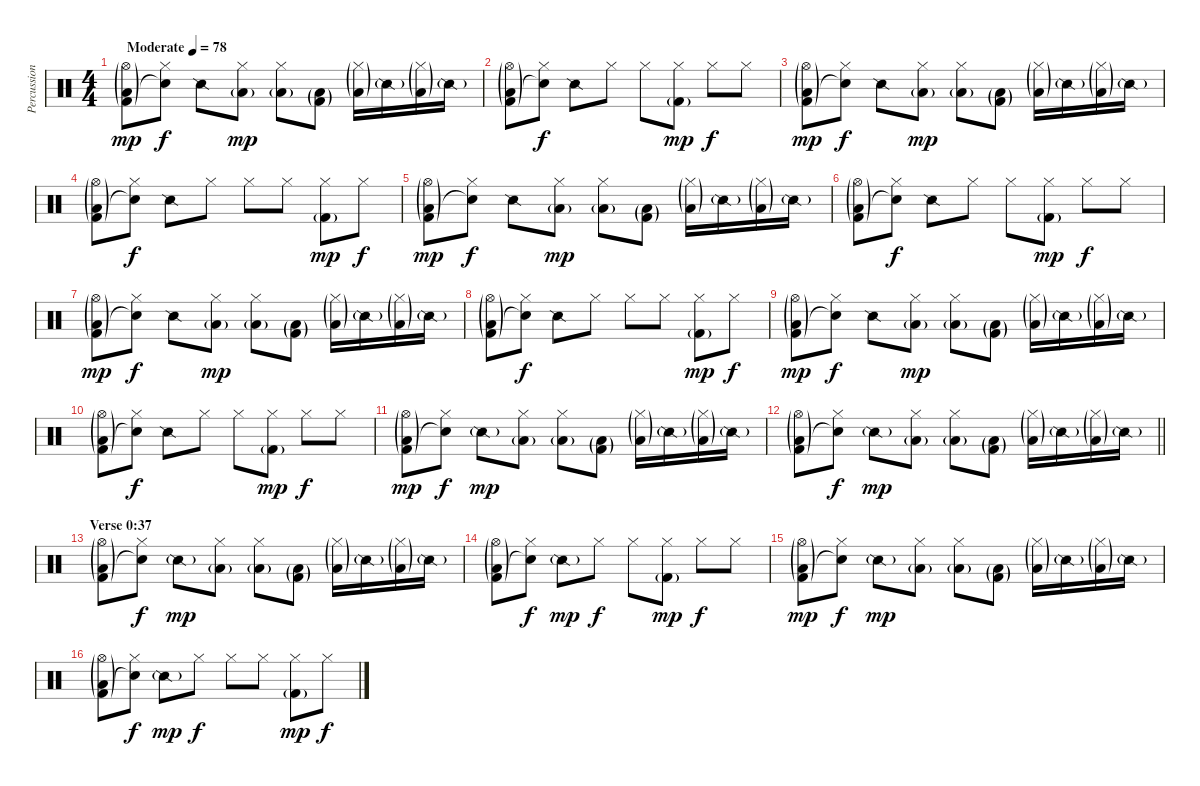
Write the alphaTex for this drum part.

\track ("Percussion" "Percussion") {instrument percussion}
\staff {score}
\articulation defaults
\ts (4 4)
\tempo (78 "Moderate")
\clef neutral
\ks c
("Hi-Hat (open)"{g} "Low Floor Tom (hit)"{g} "Kick (hit) 2"{g}).8{dy mp} ("Hi-Hat (closed)" "Snare (hit)"{t}).8{dy f} "Snare (side stick) 2".8 ("Hi-Hat (closed)" "Low Floor Tom (hit)"{g}).8{dy mp} ("Hi-Hat (closed)" "Low Floor Tom (hit)"{g}).8 ("Low Floor Tom (hit)"{g} "Kick (hit) 2"{g}).8 ("Hi-Hat (closed)"{g} "Low Floor Tom (hit)"{g}).16 "Snare (side stick) 2"{g}.16 ("Hi-Hat (closed)"{g} "Low Floor Tom (hit)"{g}).16 "Snare (side stick) 2"{g}.16 |
("Hi-Hat (open)"{g} "Low Floor Tom (hit)"{g} "Kick (hit) 2"{g}).8 ("Hi-Hat (closed)" "Snare (hit)"{t}).8{dy f} "Snare (side stick) 2".8 "Hi-Hat (closed)".8 "Hi-Hat (closed)".8 ("Hi-Hat (closed)" "Kick (hit) 2"{g}).8{dy mp} "Hi-Hat (closed)".8{dy f} "Hi-Hat (closed)".8 |
("Hi-Hat (open)"{g} "Low Floor Tom (hit)"{g} "Kick (hit) 2"{g}).8{dy mp} ("Hi-Hat (closed)" "Snare (hit)"{t}).8{dy f} "Snare (side stick) 2".8 ("Hi-Hat (closed)" "Low Floor Tom (hit)"{g}).8{dy mp} ("Hi-Hat (closed)" "Low Floor Tom (hit)"{g}).8 ("Low Floor Tom (hit)"{g} "Kick (hit) 2"{g}).8 ("Hi-Hat (closed)"{g} "Low Floor Tom (hit)"{g}).16 "Snare (side stick) 2"{g}.16 ("Hi-Hat (closed)"{g} "Low Floor Tom (hit)"{g}).16 "Snare (side stick) 2"{g}.16 |
("Hi-Hat (open)"{g} "Low Floor Tom (hit)"{g} "Kick (hit) 2"{g}).8 ("Hi-Hat (closed)" "Snare (hit)"{t}).8{dy f} "Snare (side stick) 2".8 "Hi-Hat (closed)".8 "Hi-Hat (closed)".8 "Hi-Hat (closed)".8 ("Hi-Hat (closed)" "Kick (hit) 2"{g}).8{dy mp} "Hi-Hat (closed)".8{dy f} |
("Hi-Hat (open)"{g} "Low Floor Tom (hit)"{g} "Kick (hit) 2"{g}).8{dy mp} ("Hi-Hat (closed)" "Snare (hit)"{t}).8{dy f} "Snare (side stick) 2".8 ("Hi-Hat (closed)" "Low Floor Tom (hit)"{g}).8{dy mp} ("Hi-Hat (closed)" "Low Floor Tom (hit)"{g}).8 ("Low Floor Tom (hit)"{g} "Kick (hit) 2"{g}).8 ("Hi-Hat (closed)"{g} "Low Floor Tom (hit)"{g}).16 "Snare (side stick) 2"{g}.16 ("Hi-Hat (closed)"{g} "Low Floor Tom (hit)"{g}).16 "Snare (side stick) 2"{g}.16 |
("Hi-Hat (open)"{g} "Low Floor Tom (hit)"{g} "Kick (hit) 2"{g}).8 ("Hi-Hat (closed)" "Snare (hit)"{t}).8{dy f} "Snare (side stick) 2".8 "Hi-Hat (closed)".8 "Hi-Hat (closed)".8 ("Hi-Hat (closed)" "Kick (hit) 2"{g}).8{dy mp} "Hi-Hat (closed)".8{dy f} "Hi-Hat (closed)".8 |
("Hi-Hat (open)"{g} "Low Floor Tom (hit)"{g} "Kick (hit) 2"{g}).8{dy mp} ("Hi-Hat (closed)" "Snare (hit)"{t}).8{dy f} "Snare (side stick) 2".8 ("Hi-Hat (closed)" "Low Floor Tom (hit)"{g}).8{dy mp} ("Hi-Hat (closed)" "Low Floor Tom (hit)"{g}).8 ("Low Floor Tom (hit)"{g} "Kick (hit) 2"{g}).8 ("Hi-Hat (closed)"{g} "Low Floor Tom (hit)"{g}).16 "Snare (side stick) 2"{g}.16 ("Hi-Hat (closed)"{g} "Low Floor Tom (hit)"{g}).16 "Snare (side stick) 2"{g}.16 |
("Hi-Hat (open)"{g} "Low Floor Tom (hit)"{g} "Kick (hit) 2"{g}).8 ("Hi-Hat (closed)" "Snare (hit)"{t}).8{dy f} "Snare (side stick) 2".8 "Hi-Hat (closed)".8 "Hi-Hat (closed)".8 "Hi-Hat (closed)".8 ("Hi-Hat (closed)" "Kick (hit) 2"{g}).8{dy mp} "Hi-Hat (closed)".8{dy f} |
("Hi-Hat (open)"{g} "Low Floor Tom (hit)"{g} "Kick (hit) 2"{g}).8{dy mp} ("Hi-Hat (closed)" "Snare (hit)"{t}).8{dy f} "Snare (side stick) 2".8 ("Hi-Hat (closed)" "Low Floor Tom (hit)"{g}).8{dy mp} ("Hi-Hat (closed)" "Low Floor Tom (hit)"{g}).8 ("Low Floor Tom (hit)"{g} "Kick (hit) 2"{g}).8 ("Hi-Hat (closed)"{g} "Low Floor Tom (hit)"{g}).16 "Snare (side stick) 2"{g}.16 ("Hi-Hat (closed)"{g} "Low Floor Tom (hit)"{g}).16 "Snare (side stick) 2"{g}.16 |
("Hi-Hat (open)"{g} "Low Floor Tom (hit)"{g} "Kick (hit) 2"{g}).8 ("Hi-Hat (closed)" "Snare (hit)"{t}).8{dy f} "Snare (side stick) 2".8 "Hi-Hat (closed)".8 "Hi-Hat (closed)".8 ("Hi-Hat (closed)" "Kick (hit) 2"{g}).8{dy mp} "Hi-Hat (closed)".8{dy f} "Hi-Hat (closed)".8 |
("Hi-Hat (open)"{g} "Low Floor Tom (hit)"{g} "Kick (hit) 2"{g}).8{dy mp} ("Hi-Hat (closed)" "Snare (hit)"{t}).8{dy f} "Snare (side stick) 2"{g}.8{dy mp} ("Hi-Hat (closed)" "Low Floor Tom (hit)"{g}).8 ("Hi-Hat (closed)" "Low Floor Tom (hit)"{g}).8 ("Low Floor Tom (hit)"{g} "Kick (hit) 2"{g}).8 ("Hi-Hat (closed)"{g} "Low Floor Tom (hit)"{g}).16 "Snare (side stick) 2"{g}.16 ("Hi-Hat (closed)"{g} "Low Floor Tom (hit)"{g}).16 "Snare (side stick) 2"{g}.16 |
\barLineRight lightlight
("Hi-Hat (open)"{g} "Low Floor Tom (hit)"{g} "Kick (hit) 2"{g}).8 ("Hi-Hat (closed)" "Snare (hit)"{t}).8{dy f} "Snare (side stick) 2"{g}.8{dy mp} ("Hi-Hat (closed)" "Low Floor Tom (hit)"{g}).8 ("Hi-Hat (closed)" "Low Floor Tom (hit)"{g}).8 ("Low Floor Tom (hit)"{g} "Kick (hit) 2"{g}).8 ("Hi-Hat (closed)"{g} "Low Floor Tom (hit)"{g}).16 "Snare (side stick) 2"{g}.16 ("Hi-Hat (closed)"{g} "Low Floor Tom (hit)"{g}).16 "Snare (side stick) 2"{g}.16 |
\section ("" "Verse 0:37")
("Hi-Hat (open)"{g} "Low Floor Tom (hit)"{g} "Kick (hit) 2"{g}).8 ("Hi-Hat (closed)" "Snare (hit)"{t}).8{dy f} "Snare (side stick) 2"{g}.8{dy mp} ("Hi-Hat (closed)" "Low Floor Tom (hit)"{g}).8 ("Hi-Hat (closed)" "Low Floor Tom (hit)"{g}).8 ("Low Floor Tom (hit)"{g} "Kick (hit) 2"{g}).8 ("Hi-Hat (closed)"{g} "Low Floor Tom (hit)"{g}).16 "Snare (side stick) 2"{g}.16 ("Hi-Hat (closed)"{g} "Low Floor Tom (hit)"{g}).16 "Snare (side stick) 2"{g}.16 |
("Hi-Hat (open)"{g} "Low Floor Tom (hit)"{g} "Kick (hit) 2"{g}).8 ("Hi-Hat (closed)" "Snare (hit)"{t}).8{dy f} "Snare (side stick) 2"{g}.8{dy mp} "Hi-Hat (closed)".8{dy f} "Hi-Hat (closed)".8 ("Hi-Hat (closed)" "Kick (hit) 2"{g}).8{dy mp} "Hi-Hat (closed)".8{dy f} "Hi-Hat (closed)".8 |
("Hi-Hat (open)"{g} "Low Floor Tom (hit)"{g} "Kick (hit) 2"{g}).8{dy mp} ("Hi-Hat (closed)" "Snare (hit)"{t}).8{dy f} "Snare (side stick) 2"{g}.8{dy mp} ("Hi-Hat (closed)" "Low Floor Tom (hit)"{g}).8 ("Hi-Hat (closed)" "Low Floor Tom (hit)"{g}).8 ("Low Floor Tom (hit)"{g} "Kick (hit) 2"{g}).8 ("Hi-Hat (closed)"{g} "Low Floor Tom (hit)"{g}).16 "Snare (side stick) 2"{g}.16 ("Hi-Hat (closed)"{g} "Low Floor Tom (hit)"{g}).16 "Snare (side stick) 2"{g}.16 |
("Hi-Hat (open)"{g} "Low Floor Tom (hit)"{g} "Kick (hit) 2"{g}).8 ("Hi-Hat (closed)" "Snare (hit)"{t}).8{dy f} "Snare (side stick) 2"{g}.8{dy mp} "Hi-Hat (closed)".8{dy f} "Hi-Hat (closed)".8 "Hi-Hat (closed)".8 ("Hi-Hat (closed)" "Kick (hit) 2"{g}).8{dy mp} "Hi-Hat (closed)".8{dy f}
